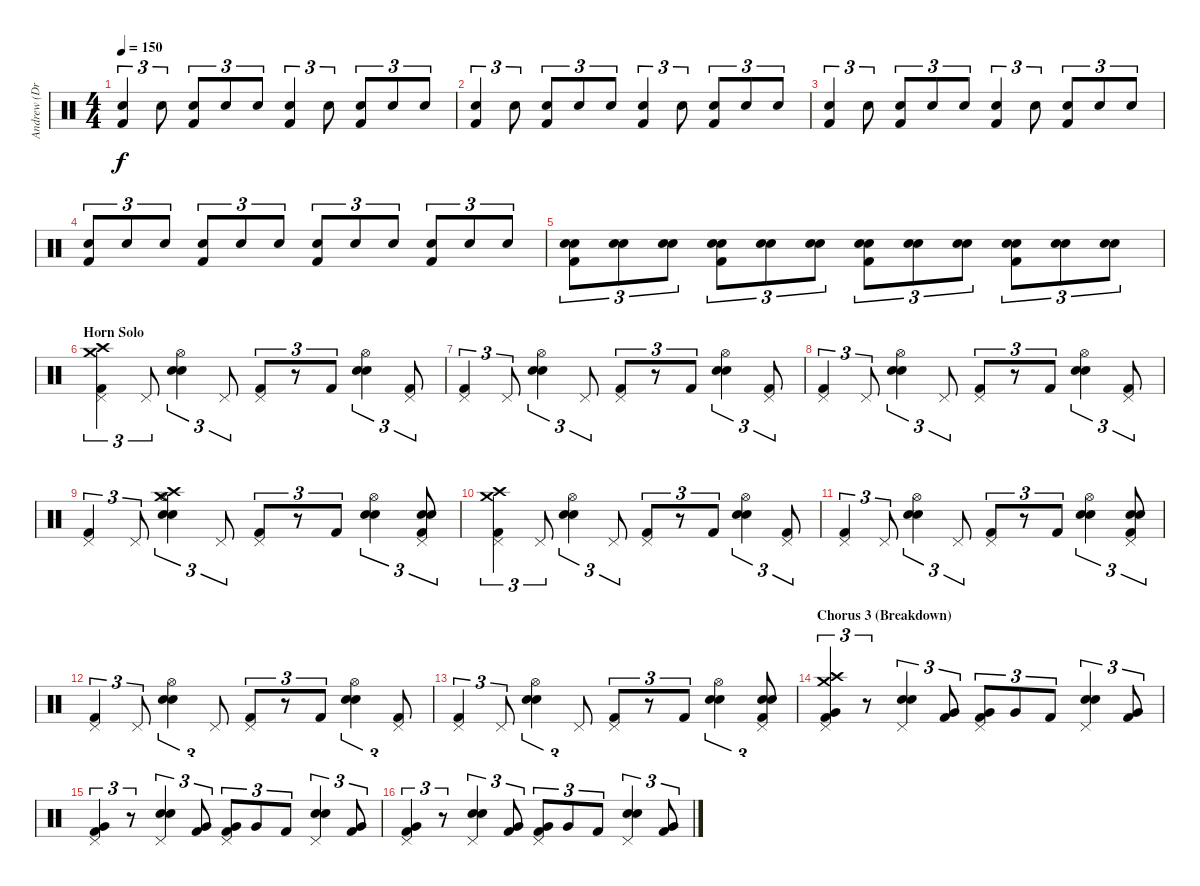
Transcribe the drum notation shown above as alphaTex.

\track ("Andrew (Drums)" "Andrew (Dr") {instrument percussion}
\staff {score}
\articulation defaults
\ts (4 4)
\tempo 150
\clef neutral
\ks c
("Electric Snare (hit)" "Kick (hit) 2").4{tu (3 2) dy f} "Electric Snare (hit)".8{tu (3 2)} ("Electric Snare (hit)" "Kick (hit) 2").8{tu (3 2)} "Electric Snare (hit)".8{tu (3 2)} "Electric Snare (hit)".8{tu (3 2)} ("Electric Snare (hit)" "Kick (hit) 2").4{tu (3 2)} "Electric Snare (hit)".8{tu (3 2)} ("Electric Snare (hit)" "Kick (hit) 2").8{tu (3 2)} "Electric Snare (hit)".8{tu (3 2)} "Electric Snare (hit)".8{tu (3 2)} |
("Electric Snare (hit)" "Kick (hit) 2").4{tu (3 2)} "Electric Snare (hit)".8{tu (3 2)} ("Electric Snare (hit)" "Kick (hit) 2").8{tu (3 2)} "Electric Snare (hit)".8{tu (3 2)} "Electric Snare (hit)".8{tu (3 2)} ("Electric Snare (hit)" "Kick (hit) 2").4{tu (3 2)} "Electric Snare (hit)".8{tu (3 2)} ("Electric Snare (hit)" "Kick (hit) 2").8{tu (3 2)} "Electric Snare (hit)".8{tu (3 2)} "Electric Snare (hit)".8{tu (3 2)} |
("Electric Snare (hit)" "Kick (hit) 2").4{tu (3 2)} "Electric Snare (hit)".8{tu (3 2)} ("Electric Snare (hit)" "Kick (hit) 2").8{tu (3 2)} "Electric Snare (hit)".8{tu (3 2)} "Electric Snare (hit)".8{tu (3 2)} ("Electric Snare (hit)" "Kick (hit) 2").4{tu (3 2)} "Electric Snare (hit)".8{tu (3 2)} ("Electric Snare (hit)" "Kick (hit) 2").8{tu (3 2)} "Electric Snare (hit)".8{tu (3 2)} "Electric Snare (hit)".8{tu (3 2)} |
("Electric Snare (hit)" "Kick (hit) 2").8{tu (3 2) volume 13} "Electric Snare (hit)".8{tu (3 2)} "Electric Snare (hit)".8{tu (3 2)} ("Electric Snare (hit)" "Kick (hit) 2").8{tu (3 2)} "Electric Snare (hit)".8{tu (3 2)} "Electric Snare (hit)".8{tu (3 2)} ("Electric Snare (hit)" "Kick (hit) 2").8{tu (3 2)} "Electric Snare (hit)".8{tu (3 2)} "Electric Snare (hit)".8{tu (3 2)} ("Electric Snare (hit)" "Kick (hit) 2").8{tu (3 2)} "Electric Snare (hit)".8{tu (3 2)} "Electric Snare (hit)".8{tu (3 2)} |
("Electric Snare (hit)" "Snare (hit) 2" "Kick (hit) 2").8{tu (3 2)} ("Electric Snare (hit)" "Snare (hit) 2").8{tu (3 2)} ("Electric Snare (hit)" "Snare (hit) 2").8{tu (3 2)} ("Electric Snare (hit)" "Snare (hit) 2" "Kick (hit) 2").8{tu (3 2)} ("Electric Snare (hit)" "Snare (hit) 2").8{tu (3 2)} ("Electric Snare (hit)" "Snare (hit) 2").8{tu (3 2)} ("Electric Snare (hit)" "Snare (hit) 2" "Kick (hit) 2").8{tu (3 2)} ("Electric Snare (hit)" "Snare (hit) 2").8{tu (3 2)} ("Electric Snare (hit)" "Snare (hit) 2").8{tu (3 2)} ("Electric Snare (hit)" "Snare (hit) 2" "Kick (hit) 2").8{tu (3 2)} ("Electric Snare (hit)" "Snare (hit) 2").8{tu (3 2)} ("Electric Snare (hit)" "Snare (hit) 2").8{tu (3 2)} |
\section ("" "Horn Solo")
("Kick (hit) 2" "Pedal Hi-Hat (hit)" "Crash medium (hit)" "Crash high (hit)").4{tu (3 2)} "Pedal Hi-Hat (hit)".8{tu (3 2)} ("Electric Snare (hit)" "Snare (hit) 2" "Hi-Hat (open)").4{tu (3 2)} "Pedal Hi-Hat (hit)".8{tu (3 2)} ("Kick (hit) 2" "Pedal Hi-Hat (hit)").8{tu (3 2)} r.8{tu (3 2)} "Kick (hit) 2".8{tu (3 2)} ("Electric Snare (hit)" "Snare (hit) 2" "Hi-Hat (open)").4{tu (3 2)} ("Kick (hit) 2" "Pedal Hi-Hat (hit)").8{tu (3 2)} |
("Kick (hit) 2" "Pedal Hi-Hat (hit)").4{tu (3 2)} "Pedal Hi-Hat (hit)".8{tu (3 2)} ("Electric Snare (hit)" "Snare (hit) 2" "Hi-Hat (open)").4{tu (3 2)} "Pedal Hi-Hat (hit)".8{tu (3 2)} ("Kick (hit) 2" "Pedal Hi-Hat (hit)").8{tu (3 2)} r.8{tu (3 2)} "Kick (hit) 2".8{tu (3 2)} ("Electric Snare (hit)" "Snare (hit) 2" "Hi-Hat (open)").4{tu (3 2)} ("Kick (hit) 2" "Pedal Hi-Hat (hit)").8{tu (3 2)} |
("Kick (hit) 2" "Pedal Hi-Hat (hit)").4{tu (3 2)} "Pedal Hi-Hat (hit)".8{tu (3 2)} ("Electric Snare (hit)" "Snare (hit) 2" "Hi-Hat (open)").4{tu (3 2)} "Pedal Hi-Hat (hit)".8{tu (3 2)} ("Kick (hit) 2" "Pedal Hi-Hat (hit)").8{tu (3 2)} r.8{tu (3 2)} "Kick (hit) 2".8{tu (3 2)} ("Electric Snare (hit)" "Snare (hit) 2" "Hi-Hat (open)").4{tu (3 2)} ("Kick (hit) 2" "Pedal Hi-Hat (hit)").8{tu (3 2)} |
("Kick (hit) 2" "Pedal Hi-Hat (hit)").4{tu (3 2)} "Pedal Hi-Hat (hit)".8{tu (3 2)} ("Electric Snare (hit)" "Snare (hit) 2" "Hi-Hat (open)" "Crash medium (hit)" "Crash high (hit)").4{tu (3 2)} "Pedal Hi-Hat (hit)".8{tu (3 2)} ("Kick (hit) 2" "Pedal Hi-Hat (hit)").8{tu (3 2)} r.8{tu (3 2)} "Kick (hit) 2".8{tu (3 2)} ("Electric Snare (hit)" "Snare (hit) 2" "Hi-Hat (open)").4{tu (3 2)} ("Kick (hit) 2" "Electric Snare (hit)" "Pedal Hi-Hat (hit)" "Snare (hit) 2").8{tu (3 2)} |
("Kick (hit) 2" "Pedal Hi-Hat (hit)" "Crash medium (hit)" "Crash high (hit)").4{tu (3 2)} "Pedal Hi-Hat (hit)".8{tu (3 2)} ("Electric Snare (hit)" "Snare (hit) 2" "Hi-Hat (open)").4{tu (3 2)} "Pedal Hi-Hat (hit)".8{tu (3 2)} ("Kick (hit) 2" "Pedal Hi-Hat (hit)").8{tu (3 2)} r.8{tu (3 2)} "Kick (hit) 2".8{tu (3 2)} ("Electric Snare (hit)" "Snare (hit) 2" "Hi-Hat (open)").4{tu (3 2)} ("Kick (hit) 2" "Pedal Hi-Hat (hit)").8{tu (3 2)} |
("Kick (hit) 2" "Pedal Hi-Hat (hit)").4{tu (3 2)} "Pedal Hi-Hat (hit)".8{tu (3 2)} ("Electric Snare (hit)" "Snare (hit) 2" "Hi-Hat (open)").4{tu (3 2)} "Pedal Hi-Hat (hit)".8{tu (3 2)} ("Kick (hit) 2" "Pedal Hi-Hat (hit)").8{tu (3 2)} r.8{tu (3 2)} "Kick (hit) 2".8{tu (3 2)} ("Electric Snare (hit)" "Snare (hit) 2" "Hi-Hat (open)").4{tu (3 2)} ("Kick (hit) 2" "Electric Snare (hit)" "Pedal Hi-Hat (hit)" "Snare (hit) 2").8{tu (3 2)} |
("Kick (hit) 2" "Pedal Hi-Hat (hit)").4{tu (3 2)} "Pedal Hi-Hat (hit)".8{tu (3 2)} ("Electric Snare (hit)" "Snare (hit) 2" "Hi-Hat (open)").4{tu (3 2)} "Pedal Hi-Hat (hit)".8{tu (3 2)} ("Kick (hit) 2" "Pedal Hi-Hat (hit)").8{tu (3 2)} r.8{tu (3 2)} "Kick (hit) 2".8{tu (3 2)} ("Electric Snare (hit)" "Snare (hit) 2" "Hi-Hat (open)").4{tu (3 2)} ("Kick (hit) 2" "Pedal Hi-Hat (hit)").8{tu (3 2)} |
("Kick (hit) 2" "Pedal Hi-Hat (hit)").4{tu (3 2)} "Pedal Hi-Hat (hit)".8{tu (3 2)} ("Electric Snare (hit)" "Snare (hit) 2" "Hi-Hat (open)").4{tu (3 2)} "Pedal Hi-Hat (hit)".8{tu (3 2)} ("Kick (hit) 2" "Pedal Hi-Hat (hit)").8{tu (3 2)} r.8{tu (3 2)} "Kick (hit) 2".8{tu (3 2)} ("Electric Snare (hit)" "Snare (hit) 2" "Hi-Hat (open)").4{tu (3 2)} ("Kick (hit) 2" "Electric Snare (hit)" "Pedal Hi-Hat (hit)" "Snare (hit) 2").8{tu (3 2)} |
\section ("" "Chorus 3 (Breakdown)")
("Kick (hit) 2" "Pedal Hi-Hat (hit)" "Very Low Tom (hit)" "Crash medium (hit)" "Crash high (hit)").4{tu (3 2)} r.8{tu (3 2)} ("Electric Snare (hit)" "Snare (hit) 2" "Pedal Hi-Hat (hit)").4{tu (3 2)} ("Kick (hit) 2" "Very Low Tom (hit)").8{tu (3 2)} ("Kick (hit) 2" "Pedal Hi-Hat (hit)" "Very Low Tom (hit)").8{tu (3 2)} "Very Low Tom (hit)".8{tu (3 2)} "Kick (hit) 2".8{tu (3 2)} ("Electric Snare (hit)" "Snare (hit) 2" "Pedal Hi-Hat (hit)").4{tu (3 2)} ("Kick (hit) 2" "Very Low Tom (hit)").8{tu (3 2)} |
("Kick (hit) 2" "Pedal Hi-Hat (hit)" "Very Low Tom (hit)").4{tu (3 2)} r.8{tu (3 2)} ("Electric Snare (hit)" "Snare (hit) 2" "Pedal Hi-Hat (hit)").4{tu (3 2)} ("Kick (hit) 2" "Very Low Tom (hit)").8{tu (3 2)} ("Kick (hit) 2" "Pedal Hi-Hat (hit)" "Very Low Tom (hit)").8{tu (3 2)} "Very Low Tom (hit)".8{tu (3 2)} "Kick (hit) 2".8{tu (3 2)} ("Electric Snare (hit)" "Snare (hit) 2" "Pedal Hi-Hat (hit)").4{tu (3 2)} ("Kick (hit) 2" "Very Low Tom (hit)").8{tu (3 2)} |
("Kick (hit) 2" "Pedal Hi-Hat (hit)" "Very Low Tom (hit)").4{tu (3 2)} r.8{tu (3 2)} ("Electric Snare (hit)" "Snare (hit) 2" "Pedal Hi-Hat (hit)").4{tu (3 2)} ("Kick (hit) 2" "Very Low Tom (hit)").8{tu (3 2)} ("Kick (hit) 2" "Pedal Hi-Hat (hit)" "Very Low Tom (hit)").8{tu (3 2)} "Very Low Tom (hit)".8{tu (3 2)} "Kick (hit) 2".8{tu (3 2)} ("Electric Snare (hit)" "Snare (hit) 2" "Pedal Hi-Hat (hit)").4{tu (3 2)} ("Kick (hit) 2" "Very Low Tom (hit)").8{tu (3 2)}
